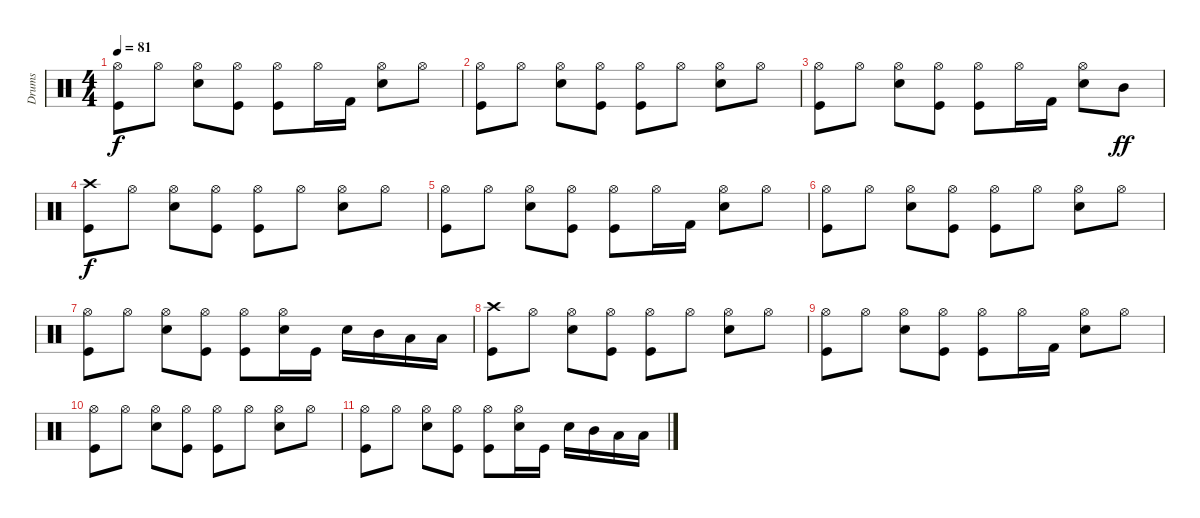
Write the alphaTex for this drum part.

\track ("Drums" "Drums") {instrument percussion}
\staff {score}
\articulation defaults
\ts (4 4)
\tempo 81
\clef neutral
\ks c
("Hi-Hat (open)" "Kick (hit)").8{dy f} "Hi-Hat (open)".8 ("Hi-Hat (open)" "Snare (hit) 2").8 ("Hi-Hat (open)" "Kick (hit)").8 ("Hi-Hat (open)" "Kick (hit)").8 "Hi-Hat (open)".16 "Kick (hit) 2".16 ("Hi-Hat (open)" "Snare (hit) 2").8 "Hi-Hat (open)".8 |
("Hi-Hat (open)" "Kick (hit)").8 "Hi-Hat (open)".8 ("Hi-Hat (open)" "Snare (hit) 2").8 ("Hi-Hat (open)" "Kick (hit)").8 ("Hi-Hat (open)" "Kick (hit)").8 "Hi-Hat (open)".8 ("Hi-Hat (open)" "Snare (hit) 2").8 "Hi-Hat (open)".8 |
("Hi-Hat (open)" "Kick (hit)").8 "Hi-Hat (open)".8 ("Hi-Hat (open)" "Snare (hit) 2").8 ("Hi-Hat (open)" "Kick (hit)").8 ("Hi-Hat (open)" "Kick (hit)").8 "Hi-Hat (open)".16 "Kick (hit) 2".16 ("Hi-Hat (open)" "Snare (hit) 2").8 "Mid Tom (hit)".8{dy ff} |
("Crash high (hit)" "Kick (hit)").8{dy f} "Hi-Hat (open)".8 ("Hi-Hat (open)" "Snare (hit) 2").8 ("Hi-Hat (open)" "Kick (hit)").8 ("Hi-Hat (open)" "Kick (hit)").8 "Hi-Hat (open)".8 ("Hi-Hat (open)" "Snare (hit) 2").8 "Hi-Hat (open)".8 |
("Hi-Hat (open)" "Kick (hit)").8 "Hi-Hat (open)".8 ("Hi-Hat (open)" "Snare (hit) 2").8 ("Hi-Hat (open)" "Kick (hit)").8 ("Hi-Hat (open)" "Kick (hit)").8 "Hi-Hat (open)".16 "Kick (hit) 2".16 ("Hi-Hat (open)" "Snare (hit) 2").8 "Hi-Hat (open)".8 |
("Hi-Hat (open)" "Kick (hit)").8 "Hi-Hat (open)".8 ("Hi-Hat (open)" "Snare (hit) 2").8 ("Hi-Hat (open)" "Kick (hit)").8 ("Hi-Hat (open)" "Kick (hit)").8 "Hi-Hat (open)".8 ("Hi-Hat (open)" "Snare (hit) 2").8 "Hi-Hat (open)".8 |
("Hi-Hat (open)" "Kick (hit)").8 "Hi-Hat (open)".8 ("Hi-Hat (open)" "Snare (hit) 2").8 ("Hi-Hat (open)" "Kick (hit)").8 ("Hi-Hat (open)" "Kick (hit)").8 ("Hi-Hat (open)" "Snare (hit) 2").16 "Kick (hit)".16 "Snare (hit) 2".16 "Mid Tom (hit)".16 "Low Tom (hit)".16 "Low Tom (hit)".16 |
("Crash high (hit)" "Kick (hit)").8 "Hi-Hat (open)".8 ("Hi-Hat (open)" "Snare (hit) 2").8 ("Hi-Hat (open)" "Kick (hit)").8 ("Hi-Hat (open)" "Kick (hit)").8 "Hi-Hat (open)".8 ("Hi-Hat (open)" "Snare (hit) 2").8 "Hi-Hat (open)".8 |
("Hi-Hat (open)" "Kick (hit)").8 "Hi-Hat (open)".8 ("Hi-Hat (open)" "Snare (hit) 2").8 ("Hi-Hat (open)" "Kick (hit)").8 ("Hi-Hat (open)" "Kick (hit)").8 "Hi-Hat (open)".16 "Kick (hit) 2".16 ("Hi-Hat (open)" "Snare (hit) 2").8 "Hi-Hat (open)".8 |
("Hi-Hat (open)" "Kick (hit)").8 "Hi-Hat (open)".8 ("Hi-Hat (open)" "Snare (hit) 2").8 ("Hi-Hat (open)" "Kick (hit)").8 ("Hi-Hat (open)" "Kick (hit)").8 "Hi-Hat (open)".8 ("Hi-Hat (open)" "Snare (hit) 2").8 "Hi-Hat (open)".8 |
("Hi-Hat (open)" "Kick (hit)").8 "Hi-Hat (open)".8 ("Hi-Hat (open)" "Snare (hit) 2").8 ("Hi-Hat (open)" "Kick (hit)").8 ("Hi-Hat (open)" "Kick (hit)").8 ("Hi-Hat (open)" "Snare (hit) 2").16 "Kick (hit)".16 "Snare (hit) 2".16 "Mid Tom (hit)".16 "Low Tom (hit)".16 "Low Tom (hit)".16
